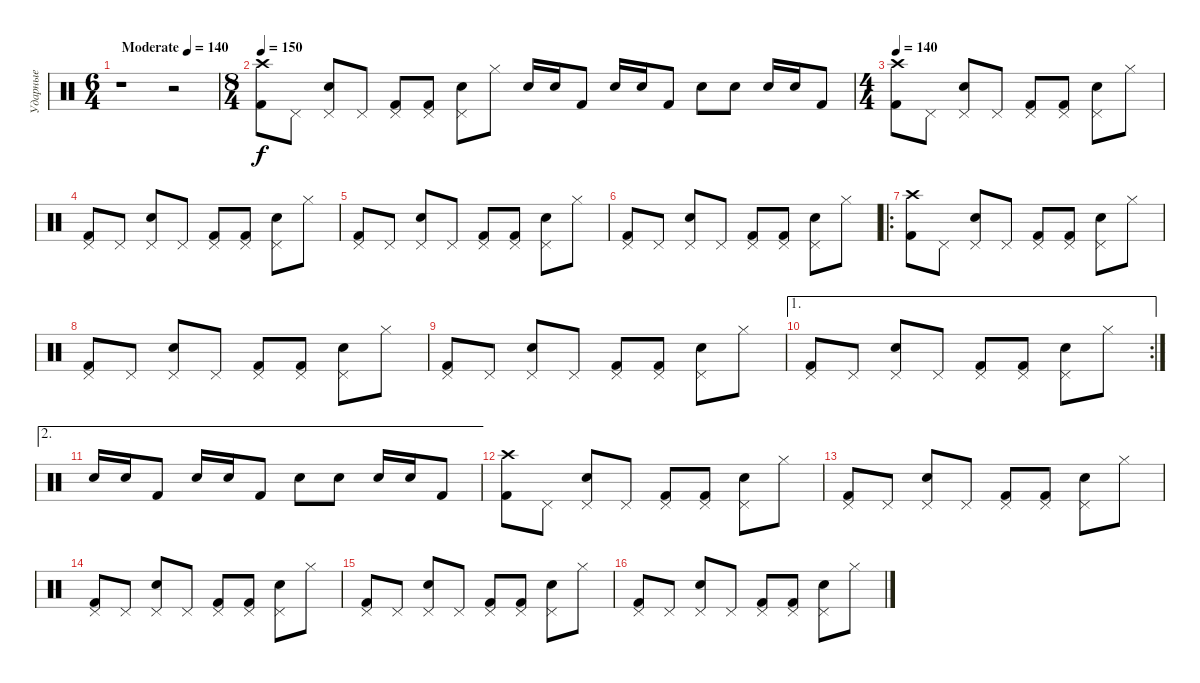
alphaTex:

\track ("Ударные" "Ударные") {instrument percussion}
\staff {score}
\articulation defaults
\ts (6 4)
\tempo (140 "Moderate")
\tempo 128
\tempo (140 "Moderate")
\clef neutral
\ks c
r.1{dy f} r.2 |
\ts (8 4)
\tempo 150
("Crash high (hit)" "Kick (hit) 2").8 "Pedal Hi-Hat (hit)".8 ("Pedal Hi-Hat (hit)" "Snare (hit) 2").8 "Pedal Hi-Hat (hit)".8 ("Pedal Hi-Hat (hit)" "Kick (hit) 2").8 ("Pedal Hi-Hat (hit)" "Kick (hit) 2").8 ("Pedal Hi-Hat (hit)" "Snare (hit) 2").8 "Hi-Hat (closed)".8 "Snare (hit) 2".16 "Snare (hit) 2".16 "Kick (hit) 2".8 "Snare (hit) 2".16 "Snare (hit) 2".16 "Kick (hit) 2".8 "Snare (hit) 2".8 "Snare (hit) 2".8 "Snare (hit) 2".16 "Snare (hit) 2".16 "Kick (hit) 2".8 |
\ts (4 4)
\tempo 140
("Crash high (hit)" "Kick (hit) 2").8 "Pedal Hi-Hat (hit)".8 ("Pedal Hi-Hat (hit)" "Snare (hit) 2").8 "Pedal Hi-Hat (hit)".8 ("Pedal Hi-Hat (hit)" "Kick (hit) 2").8 ("Pedal Hi-Hat (hit)" "Kick (hit) 2").8 ("Pedal Hi-Hat (hit)" "Snare (hit) 2").8 "Hi-Hat (closed)".8 |
("Pedal Hi-Hat (hit)" "Kick (hit) 2").8 "Pedal Hi-Hat (hit)".8 ("Pedal Hi-Hat (hit)" "Snare (hit) 2").8 "Pedal Hi-Hat (hit)".8 ("Pedal Hi-Hat (hit)" "Kick (hit) 2").8 ("Pedal Hi-Hat (hit)" "Kick (hit) 2").8 ("Pedal Hi-Hat (hit)" "Snare (hit) 2").8 "Hi-Hat (closed)".8 |
("Pedal Hi-Hat (hit)" "Kick (hit) 2").8 "Pedal Hi-Hat (hit)".8 ("Pedal Hi-Hat (hit)" "Snare (hit) 2").8 "Pedal Hi-Hat (hit)".8 ("Pedal Hi-Hat (hit)" "Kick (hit) 2").8 ("Pedal Hi-Hat (hit)" "Kick (hit) 2").8 ("Pedal Hi-Hat (hit)" "Snare (hit) 2").8 "Hi-Hat (closed)".8 |
("Pedal Hi-Hat (hit)" "Kick (hit) 2").8 "Pedal Hi-Hat (hit)".8 ("Pedal Hi-Hat (hit)" "Snare (hit) 2").8 "Pedal Hi-Hat (hit)".8 ("Pedal Hi-Hat (hit)" "Kick (hit) 2").8 ("Pedal Hi-Hat (hit)" "Kick (hit) 2").8 ("Pedal Hi-Hat (hit)" "Snare (hit) 2").8 "Hi-Hat (closed)".8 |
\ro
("Crash high (hit)" "Kick (hit) 2").8 "Pedal Hi-Hat (hit)".8 ("Pedal Hi-Hat (hit)" "Snare (hit) 2").8 "Pedal Hi-Hat (hit)".8 ("Pedal Hi-Hat (hit)" "Kick (hit) 2").8 ("Pedal Hi-Hat (hit)" "Kick (hit) 2").8 ("Pedal Hi-Hat (hit)" "Snare (hit) 2").8 "Hi-Hat (closed)".8 |
("Pedal Hi-Hat (hit)" "Kick (hit) 2").8 "Pedal Hi-Hat (hit)".8 ("Pedal Hi-Hat (hit)" "Snare (hit) 2").8 "Pedal Hi-Hat (hit)".8 ("Pedal Hi-Hat (hit)" "Kick (hit) 2").8 ("Pedal Hi-Hat (hit)" "Kick (hit) 2").8 ("Pedal Hi-Hat (hit)" "Snare (hit) 2").8 "Hi-Hat (closed)".8 |
("Pedal Hi-Hat (hit)" "Kick (hit) 2").8 "Pedal Hi-Hat (hit)".8 ("Pedal Hi-Hat (hit)" "Snare (hit) 2").8 "Pedal Hi-Hat (hit)".8 ("Pedal Hi-Hat (hit)" "Kick (hit) 2").8 ("Pedal Hi-Hat (hit)" "Kick (hit) 2").8 ("Pedal Hi-Hat (hit)" "Snare (hit) 2").8 "Hi-Hat (closed)".8 |
\ae 1
\rc 2
("Pedal Hi-Hat (hit)" "Kick (hit) 2").8 "Pedal Hi-Hat (hit)".8 ("Pedal Hi-Hat (hit)" "Snare (hit) 2").8 "Pedal Hi-Hat (hit)".8 ("Pedal Hi-Hat (hit)" "Kick (hit) 2").8 ("Pedal Hi-Hat (hit)" "Kick (hit) 2").8 ("Pedal Hi-Hat (hit)" "Snare (hit) 2").8 "Hi-Hat (closed)".8 |
\ae 2 "Snare (hit) 2".16 "Snare (hit) 2".16 "Kick (hit) 2".8 "Snare (hit) 2".16 "Snare (hit) 2".16 "Kick (hit) 2".8 "Snare (hit) 2".8 "Snare (hit) 2".8 "Snare (hit) 2".16 "Snare (hit) 2".16 "Kick (hit) 2".8
|
("Crash high (hit)" "Kick (hit) 2").8 "Pedal Hi-Hat (hit)".8 ("Pedal Hi-Hat (hit)" "Snare (hit) 2").8 "Pedal Hi-Hat (hit)".8 ("Pedal Hi-Hat (hit)" "Kick (hit) 2").8 ("Pedal Hi-Hat (hit)" "Kick (hit) 2").8 ("Pedal Hi-Hat (hit)" "Snare (hit) 2").8 "Hi-Hat (closed)".8 |
("Pedal Hi-Hat (hit)" "Kick (hit) 2").8 "Pedal Hi-Hat (hit)".8 ("Pedal Hi-Hat (hit)" "Snare (hit) 2").8 "Pedal Hi-Hat (hit)".8 ("Pedal Hi-Hat (hit)" "Kick (hit) 2").8 ("Pedal Hi-Hat (hit)" "Kick (hit) 2").8 ("Pedal Hi-Hat (hit)" "Snare (hit) 2").8 "Hi-Hat (closed)".8 |
("Pedal Hi-Hat (hit)" "Kick (hit) 2").8 "Pedal Hi-Hat (hit)".8 ("Pedal Hi-Hat (hit)" "Snare (hit) 2").8 "Pedal Hi-Hat (hit)".8 ("Pedal Hi-Hat (hit)" "Kick (hit) 2").8 ("Pedal Hi-Hat (hit)" "Kick (hit) 2").8 ("Pedal Hi-Hat (hit)" "Snare (hit) 2").8 "Hi-Hat (closed)".8 |
("Pedal Hi-Hat (hit)" "Kick (hit) 2").8 "Pedal Hi-Hat (hit)".8 ("Pedal Hi-Hat (hit)" "Snare (hit) 2").8 "Pedal Hi-Hat (hit)".8 ("Pedal Hi-Hat (hit)" "Kick (hit) 2").8 ("Pedal Hi-Hat (hit)" "Kick (hit) 2").8 ("Pedal Hi-Hat (hit)" "Snare (hit) 2").8 "Hi-Hat (closed)".8 |
("Pedal Hi-Hat (hit)" "Kick (hit) 2").8 "Pedal Hi-Hat (hit)".8 ("Pedal Hi-Hat (hit)" "Snare (hit) 2").8 "Pedal Hi-Hat (hit)".8 ("Pedal Hi-Hat (hit)" "Kick (hit) 2").8 ("Pedal Hi-Hat (hit)" "Kick (hit) 2").8 ("Pedal Hi-Hat (hit)" "Snare (hit) 2").8 "Hi-Hat (closed)".8
